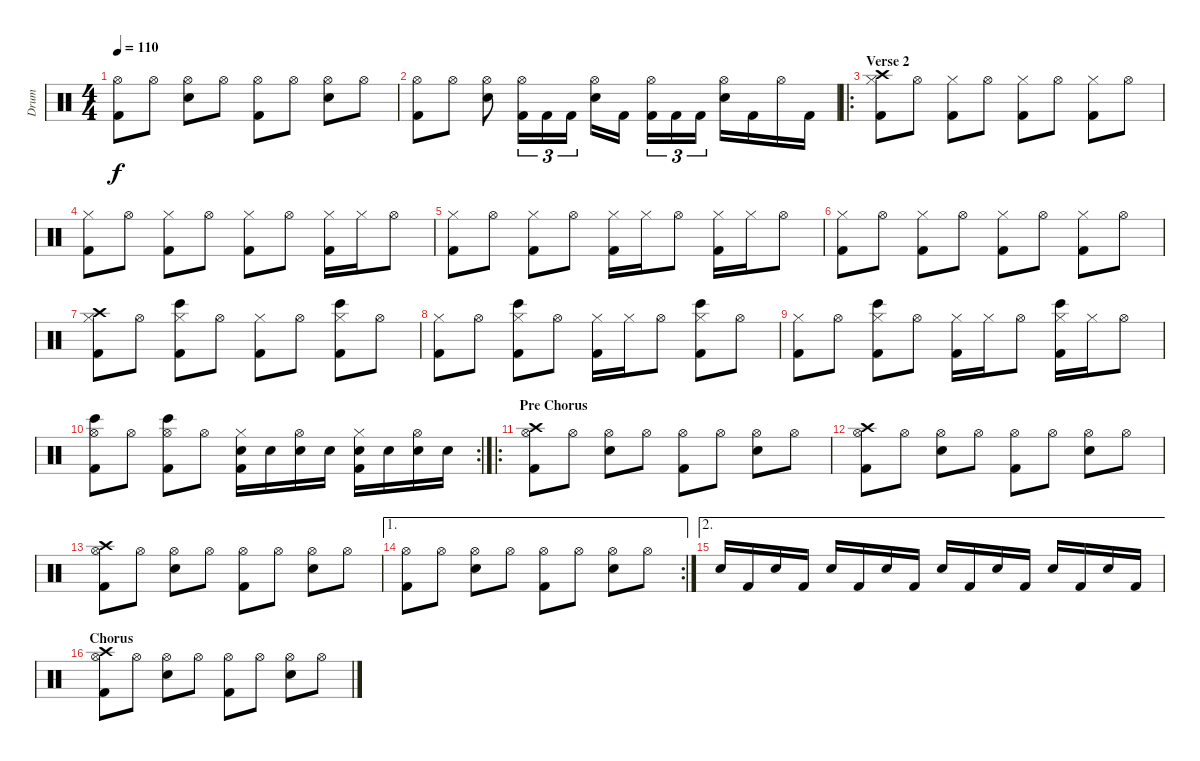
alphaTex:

\track ("Drum" "Drum") {instrument percussion}
\staff {score}
\articulation defaults
\ts (4 4)
\tempo 110
\clef neutral
\ks c
("Hi-Hat (open)" "Kick (hit) 2").8{dy f} "Hi-Hat (open)".8 ("Hi-Hat (open)" "Electric Snare (hit)").8 "Hi-Hat (open)".8 ("Hi-Hat (open)" "Kick (hit) 2").8 "Hi-Hat (open)".8 ("Hi-Hat (open)" "Electric Snare (hit)").8 "Hi-Hat (open)".8 |
("Hi-Hat (open)" "Kick (hit) 2").8 "Hi-Hat (open)".8 ("Hi-Hat (open)" "Electric Snare (hit)").8 ("Hi-Hat (open)" "Kick (hit) 2").16{tu (3 2)} "Kick (hit) 2".16{tu (3 2)} "Kick (hit) 2".16{tu (3 2)} ("Hi-Hat (open)" "Electric Snare (hit)").16 "Kick (hit) 2".16 ("Hi-Hat (open)" "Kick (hit) 2").16{tu (3 2)} "Kick (hit) 2".16{tu (3 2)} "Kick (hit) 2".16{tu (3 2)} ("Hi-Hat (open)" "Electric Snare (hit)").16 "Kick (hit) 2".16 "Hi-Hat (open)".16 "Kick (hit) 2".16 |
\ro
\section ("" "Verse 2")
("Crash high (hit)" "Hi-Hat (closed)" "Kick (hit) 2").8 "Hi-Hat (open)".8 ("Hi-Hat (closed)" "Kick (hit) 2").8 "Hi-Hat (open)".8 ("Hi-Hat (closed)" "Kick (hit) 2").8 "Hi-Hat (open)".8 ("Hi-Hat (closed)" "Kick (hit) 2").8 "Hi-Hat (open)".8 |
("Hi-Hat (closed)" "Kick (hit) 2").8 "Hi-Hat (open)".8 ("Hi-Hat (closed)" "Kick (hit) 2").8 "Hi-Hat (open)".8 ("Hi-Hat (closed)" "Kick (hit) 2").8 "Hi-Hat (open)".8 ("Hi-Hat (closed)" "Kick (hit) 2").16 "Hi-Hat (closed)".16 "Hi-Hat (open)".8 |
("Hi-Hat (closed)" "Kick (hit) 2").8 "Hi-Hat (open)".8 ("Hi-Hat (closed)" "Kick (hit) 2").8 "Hi-Hat (open)".8 ("Hi-Hat (closed)" "Kick (hit) 2").16 "Hi-Hat (closed)".16 "Hi-Hat (open)".8 ("Hi-Hat (closed)" "Kick (hit) 2").16 "Hi-Hat (closed)".16 "Hi-Hat (open)".8 |
("Hi-Hat (closed)" "Kick (hit) 2").8 "Hi-Hat (open)".8 ("Hi-Hat (closed)" "Kick (hit) 2").8 "Hi-Hat (open)".8 ("Hi-Hat (closed)" "Kick (hit) 2").8 "Hi-Hat (open)".8 ("Hi-Hat (closed)" "Kick (hit) 2").8 "Hi-Hat (open)".8 |
("Crash high (hit)" "Hi-Hat (closed)" "Kick (hit) 2").8 "Hi-Hat (open)".8 ("Hi-Hat (closed)" "Bongo High (hit)" "Kick (hit) 2").8 "Hi-Hat (open)".8 ("Hi-Hat (closed)" "Kick (hit) 2").8 "Hi-Hat (open)".8 ("Hi-Hat (closed)" "Bongo High (hit)" "Kick (hit) 2").8 "Hi-Hat (open)".8 |
("Hi-Hat (closed)" "Kick (hit) 2").8 "Hi-Hat (open)".8 ("Hi-Hat (closed)" "Bongo High (hit)" "Kick (hit) 2").8 "Hi-Hat (open)".8 ("Hi-Hat (closed)" "Kick (hit) 2").16 "Hi-Hat (closed)".16 "Hi-Hat (open)".8 ("Hi-Hat (closed)" "Bongo High (hit)" "Kick (hit) 2").8 "Hi-Hat (open)".8 |
("Hi-Hat (closed)" "Kick (hit) 2").8 "Hi-Hat (open)".8 ("Hi-Hat (closed)" "Bongo High (hit)" "Kick (hit) 2").8 "Hi-Hat (open)".8 ("Hi-Hat (closed)" "Kick (hit) 2").16 "Hi-Hat (closed)".16 "Hi-Hat (open)".8 ("Hi-Hat (closed)" "Bongo High (hit)" "Kick (hit) 2").16 "Hi-Hat (closed)".16 "Hi-Hat (open)".8 |
\rc 2
("Hi-Hat (open)" "Bongo High (hit)" "Kick (hit) 2").8 "Hi-Hat (open)".8 ("Hi-Hat (open)" "Bongo High (hit)" "Kick (hit) 2").8 "Hi-Hat (open)".8 ("Hi-Hat (closed)" "Electric Snare (hit)" "Kick (hit) 2").16 "Electric Snare (hit)".16 ("Hi-Hat (open)" "Electric Snare (hit)").16 "Electric Snare (hit)".16 ("Hi-Hat (closed)" "Electric Snare (hit)" "Kick (hit) 2").16 "Electric Snare (hit)".16 ("Hi-Hat (open)" "Electric Snare (hit)").16 "Electric Snare (hit)".16 |
\ro
\section ("" "Pre Chorus")
("Crash high (hit)" "Hi-Hat (open)" "Kick (hit) 2").8 "Hi-Hat (open)".8 ("Hi-Hat (open)" "Electric Snare (hit)").8 "Hi-Hat (open)".8 ("Hi-Hat (open)" "Kick (hit) 2").8 "Hi-Hat (open)".8 ("Hi-Hat (open)" "Electric Snare (hit)").8 "Hi-Hat (open)".8 |
("Crash high (hit)" "Hi-Hat (open)" "Kick (hit) 2").8 "Hi-Hat (open)".8 ("Hi-Hat (open)" "Electric Snare (hit)").8 "Hi-Hat (open)".8 ("Hi-Hat (open)" "Kick (hit) 2").8 "Hi-Hat (open)".8 ("Hi-Hat (open)" "Electric Snare (hit)").8 "Hi-Hat (open)".8 |
("Crash high (hit)" "Hi-Hat (open)" "Kick (hit) 2").8 "Hi-Hat (open)".8 ("Hi-Hat (open)" "Electric Snare (hit)").8 "Hi-Hat (open)".8 ("Hi-Hat (open)" "Kick (hit) 2").8 "Hi-Hat (open)".8 ("Hi-Hat (open)" "Electric Snare (hit)").8 "Hi-Hat (open)".8 |
\ae 1
\rc 2
("Hi-Hat (open)" "Kick (hit) 2").8 "Hi-Hat (open)".8 ("Hi-Hat (open)" "Electric Snare (hit)").8 "Hi-Hat (open)".8 ("Hi-Hat (open)" "Kick (hit) 2").8 "Hi-Hat (open)".8 ("Hi-Hat (open)" "Electric Snare (hit)").8 "Hi-Hat (open)".8 |
\ae 2 "Electric Snare (hit)".16 "Kick (hit) 2".16 "Electric Snare (hit)".16 "Kick (hit) 2".16 "Electric Snare (hit)".16 "Kick (hit) 2".16 "Electric Snare (hit)".16 "Kick (hit) 2".16 "Electric Snare (hit)".16 "Kick (hit) 2".16 "Electric Snare (hit)".16 "Kick (hit) 2".16 "Electric Snare (hit)".16 "Kick (hit) 2".16 "Electric Snare (hit)".16 "Kick (hit) 2".16
|
\section ("" "Chorus")
("Crash high (hit)" "Hi-Hat (open)" "Kick (hit) 2").8 "Hi-Hat (open)".8 ("Hi-Hat (open)" "Electric Snare (hit)").8 "Hi-Hat (open)".8 ("Hi-Hat (open)" "Kick (hit) 2").8 "Hi-Hat (open)".8 ("Hi-Hat (open)" "Electric Snare (hit)").8 "Hi-Hat (open)".8
